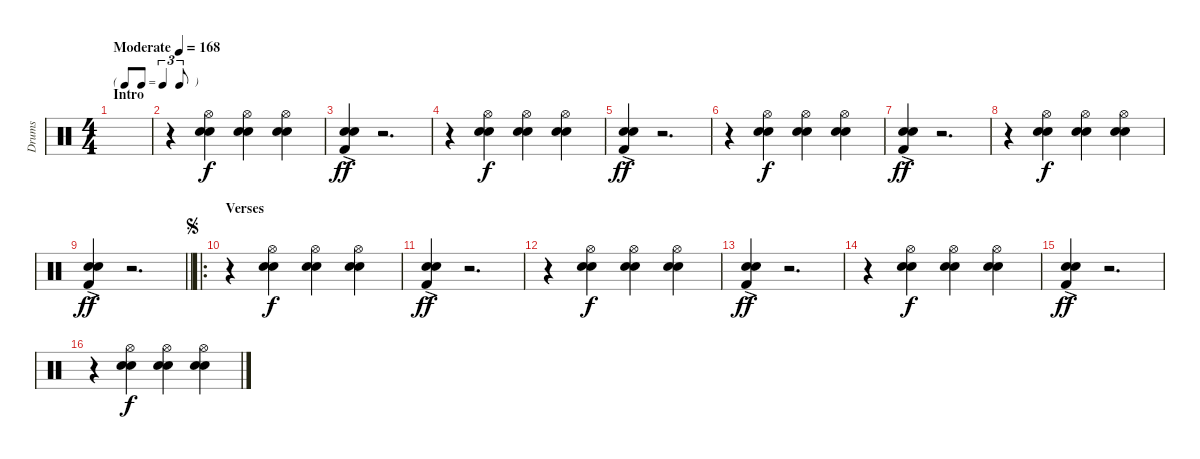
\track ("Drums" "Drums") {instrument percussion}
\staff {score}
\articulation defaults
\ts (4 4)
\tf triplet8th
\section ("" "Intro")
\tempo (168 "Moderate")
\clef neutral
\ks c
|
r.4 ("Hi-Hat (open)" "Electric Snare (hit)" "Snare (hit) 2").4 ("Hi-Hat (open)" "Electric Snare (hit)" "Snare (hit) 2").4 ("Hi-Hat (open)" "Electric Snare (hit)" "Snare (hit) 2").4 |
("Electric Snare (hit)"{ac} "Snare (hit) 2" "Kick (hit) 2"{ac}).4{dy ff} r.2{d} |
r.4 ("Hi-Hat (open)" "Electric Snare (hit)" "Snare (hit) 2").4{dy f} ("Hi-Hat (open)" "Electric Snare (hit)" "Snare (hit) 2").4 ("Hi-Hat (open)" "Electric Snare (hit)" "Snare (hit) 2").4 |
("Electric Snare (hit)"{ac} "Snare (hit) 2" "Kick (hit) 2"{ac}).4{dy ff} r.2{d} |
r.4 ("Hi-Hat (open)" "Electric Snare (hit)" "Snare (hit) 2").4{dy f} ("Hi-Hat (open)" "Electric Snare (hit)" "Snare (hit) 2").4 ("Hi-Hat (open)" "Electric Snare (hit)" "Snare (hit) 2").4 |
("Electric Snare (hit)"{ac} "Snare (hit) 2" "Kick (hit) 2"{ac}).4{dy ff} r.2{d} |
r.4 ("Hi-Hat (open)" "Electric Snare (hit)" "Snare (hit) 2").4{dy f} ("Hi-Hat (open)" "Electric Snare (hit)" "Snare (hit) 2").4 ("Hi-Hat (open)" "Electric Snare (hit)" "Snare (hit) 2").4 |
\barLineRight lightlight
("Electric Snare (hit)"{ac} "Snare (hit) 2" "Kick (hit) 2"{ac}).4{dy ff} r.2{d} |
\ro
\section ("" "Verses")
\jump segno
r.4 ("Hi-Hat (open)" "Electric Snare (hit)" "Snare (hit) 2").4{dy f} ("Hi-Hat (open)" "Electric Snare (hit)" "Snare (hit) 2").4 ("Hi-Hat (open)" "Electric Snare (hit)" "Snare (hit) 2").4 |
("Electric Snare (hit)"{ac} "Snare (hit) 2" "Kick (hit) 2"{ac}).4{dy ff} r.2{d} |
r.4 ("Hi-Hat (open)" "Electric Snare (hit)" "Snare (hit) 2").4{dy f} ("Hi-Hat (open)" "Electric Snare (hit)" "Snare (hit) 2").4 ("Hi-Hat (open)" "Electric Snare (hit)" "Snare (hit) 2").4 |
("Electric Snare (hit)"{ac} "Snare (hit) 2" "Kick (hit) 2"{ac}).4{dy ff} r.2{d} |
r.4 ("Hi-Hat (open)" "Electric Snare (hit)" "Snare (hit) 2").4{dy f} ("Hi-Hat (open)" "Electric Snare (hit)" "Snare (hit) 2").4 ("Hi-Hat (open)" "Electric Snare (hit)" "Snare (hit) 2").4 |
("Electric Snare (hit)"{ac} "Snare (hit) 2" "Kick (hit) 2"{ac}).4{dy ff} r.2{d} |
r.4 ("Hi-Hat (open)" "Electric Snare (hit)" "Snare (hit) 2").4{dy f} ("Hi-Hat (open)" "Electric Snare (hit)" "Snare (hit) 2").4 ("Hi-Hat (open)" "Electric Snare (hit)" "Snare (hit) 2").4
